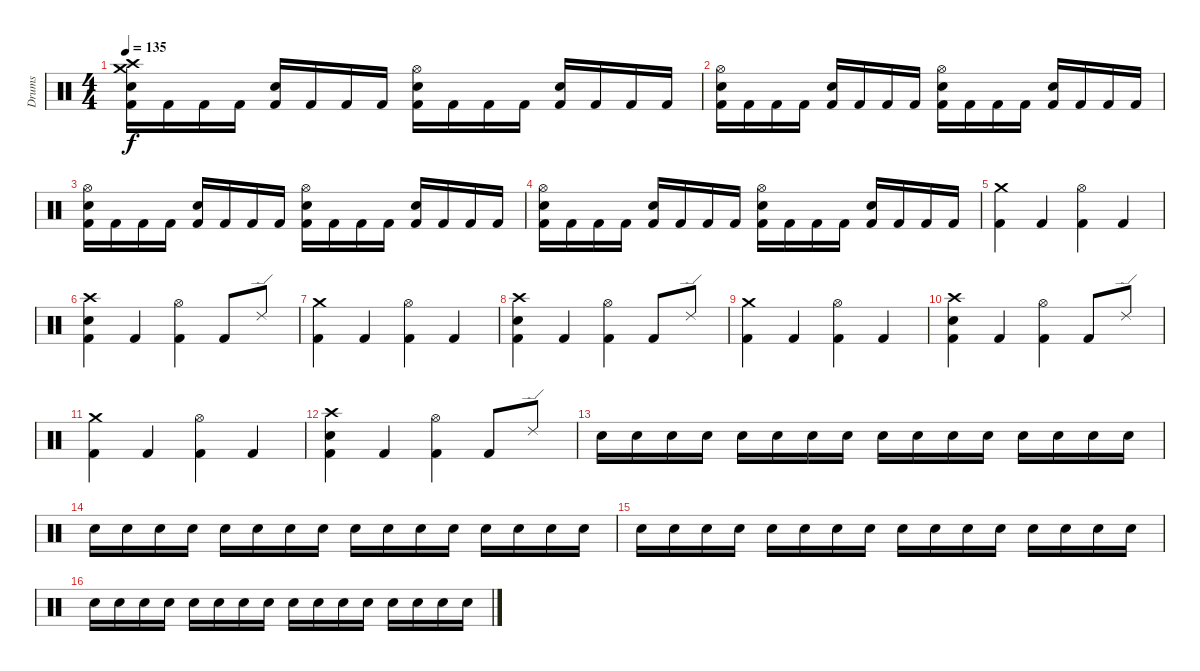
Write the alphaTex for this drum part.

\track ("Drums" "Drums") {instrument percussion}
\staff {score}
\articulation defaults
\ts (4 4)
\tempo 135
\clef neutral
\ks c
("Snare (hit) 2" "Kick (hit) 2" "Crash medium (hit)" "Crash high (hit)").16{dy f} "Kick (hit) 2".16 "Kick (hit) 2".16 "Kick (hit) 2".16 ("Snare (hit) 2" "Kick (hit) 2").16 "Kick (hit) 2".16 "Kick (hit) 2".16 "Kick (hit) 2".16 ("Snare (hit) 2" "Kick (hit) 2" "Hi-Hat (open)").16 "Kick (hit) 2".16 "Kick (hit) 2".16 "Kick (hit) 2".16 ("Snare (hit) 2" "Kick (hit) 2").16 "Kick (hit) 2".16 "Kick (hit) 2".16 "Kick (hit) 2".16 |
("Snare (hit) 2" "Kick (hit) 2" "Hi-Hat (open)").16 "Kick (hit) 2".16 "Kick (hit) 2".16 "Kick (hit) 2".16 ("Snare (hit) 2" "Kick (hit) 2").16 "Kick (hit) 2".16 "Kick (hit) 2".16 "Kick (hit) 2".16 ("Snare (hit) 2" "Kick (hit) 2" "Hi-Hat (open)").16 "Kick (hit) 2".16 "Kick (hit) 2".16 "Kick (hit) 2".16 ("Snare (hit) 2" "Kick (hit) 2").16 "Kick (hit) 2".16 "Kick (hit) 2".16 "Kick (hit) 2".16 |
("Snare (hit) 2" "Kick (hit) 2" "Hi-Hat (open)").16 "Kick (hit) 2".16 "Kick (hit) 2".16 "Kick (hit) 2".16 ("Snare (hit) 2" "Kick (hit) 2").16 "Kick (hit) 2".16 "Kick (hit) 2".16 "Kick (hit) 2".16 ("Snare (hit) 2" "Kick (hit) 2" "Hi-Hat (open)").16 "Kick (hit) 2".16 "Kick (hit) 2".16 "Kick (hit) 2".16 ("Snare (hit) 2" "Kick (hit) 2").16 "Kick (hit) 2".16 "Kick (hit) 2".16 "Kick (hit) 2".16 |
("Snare (hit) 2" "Kick (hit) 2" "Hi-Hat (open)").16 "Kick (hit) 2".16 "Kick (hit) 2".16 "Kick (hit) 2".16 ("Snare (hit) 2" "Kick (hit) 2").16 "Kick (hit) 2".16 "Kick (hit) 2".16 "Kick (hit) 2".16 ("Snare (hit) 2" "Kick (hit) 2" "Hi-Hat (open)").16 "Kick (hit) 2".16 "Kick (hit) 2".16 "Kick (hit) 2".16 ("Snare (hit) 2" "Kick (hit) 2").16 "Kick (hit) 2".16 "Kick (hit) 2".16 "Kick (hit) 2".16 |
("Crash medium (hit)" "Kick (hit) 2").4 "Kick (hit) 2".4 ("Hi-Hat (open)" "Kick (hit) 2").4 "Kick (hit) 2".4 |
("Crash high (hit)" "Kick (hit) 2" "Snare (hit) 2").4 "Kick (hit) 2".4 ("Hi-Hat (open)" "Kick (hit) 2").4 "Kick (hit) 2".8 "Ride (edge) 2".8 |
("Crash medium (hit)" "Kick (hit) 2").4 "Kick (hit) 2".4 ("Hi-Hat (open)" "Kick (hit) 2").4 "Kick (hit) 2".4 |
("Crash high (hit)" "Kick (hit) 2" "Snare (hit) 2").4 "Kick (hit) 2".4 ("Hi-Hat (open)" "Kick (hit) 2").4 "Kick (hit) 2".8 "Ride (edge) 2".8 |
("Crash medium (hit)" "Kick (hit) 2").4 "Kick (hit) 2".4 ("Hi-Hat (open)" "Kick (hit) 2").4 "Kick (hit) 2".4 |
("Crash high (hit)" "Kick (hit) 2" "Snare (hit) 2").4 "Kick (hit) 2".4 ("Hi-Hat (open)" "Kick (hit) 2").4 "Kick (hit) 2".8 "Ride (edge) 2".8 |
("Crash medium (hit)" "Kick (hit) 2").4 "Kick (hit) 2".4 ("Hi-Hat (open)" "Kick (hit) 2").4 "Kick (hit) 2".4 |
("Crash high (hit)" "Kick (hit) 2" "Snare (hit) 2").4 "Kick (hit) 2".4 ("Hi-Hat (open)" "Kick (hit) 2").4 "Kick (hit) 2".8 "Ride (edge) 2".8 |
"Snare (hit) 2".16{volume 1} "Snare (hit) 2".16{volume 8} "Snare (hit) 2".16 "Snare (hit) 2".16 "Snare (hit) 2".16 "Snare (hit) 2".16 "Snare (hit) 2".16 "Snare (hit) 2".16 "Snare (hit) 2".16 "Snare (hit) 2".16 "Snare (hit) 2".16 "Snare (hit) 2".16 "Snare (hit) 2".16 "Snare (hit) 2".16 "Snare (hit) 2".16 "Snare (hit) 2".16 |
"Snare (hit) 2".16 "Snare (hit) 2".16 "Snare (hit) 2".16 "Snare (hit) 2".16 "Snare (hit) 2".16 "Snare (hit) 2".16 "Snare (hit) 2".16 "Snare (hit) 2".16 "Snare (hit) 2".16 "Snare (hit) 2".16 "Snare (hit) 2".16 "Snare (hit) 2".16 "Snare (hit) 2".16 "Snare (hit) 2".16 "Snare (hit) 2".16 "Snare (hit) 2".16 |
"Snare (hit) 2".16 "Snare (hit) 2".16 "Snare (hit) 2".16 "Snare (hit) 2".16 "Snare (hit) 2".16 "Snare (hit) 2".16 "Snare (hit) 2".16 "Snare (hit) 2".16 "Snare (hit) 2".16 "Snare (hit) 2".16 "Snare (hit) 2".16 "Snare (hit) 2".16 "Snare (hit) 2".16 "Snare (hit) 2".16 "Snare (hit) 2".16 "Snare (hit) 2".16 |
"Snare (hit) 2".16 "Snare (hit) 2".16 "Snare (hit) 2".16 "Snare (hit) 2".16 "Snare (hit) 2".16 "Snare (hit) 2".16 "Snare (hit) 2".16 "Snare (hit) 2".16 "Snare (hit) 2".16 "Snare (hit) 2".16 "Snare (hit) 2".16 "Snare (hit) 2".16 "Snare (hit) 2".16 "Snare (hit) 2".16 "Snare (hit) 2".16 "Snare (hit) 2".16
